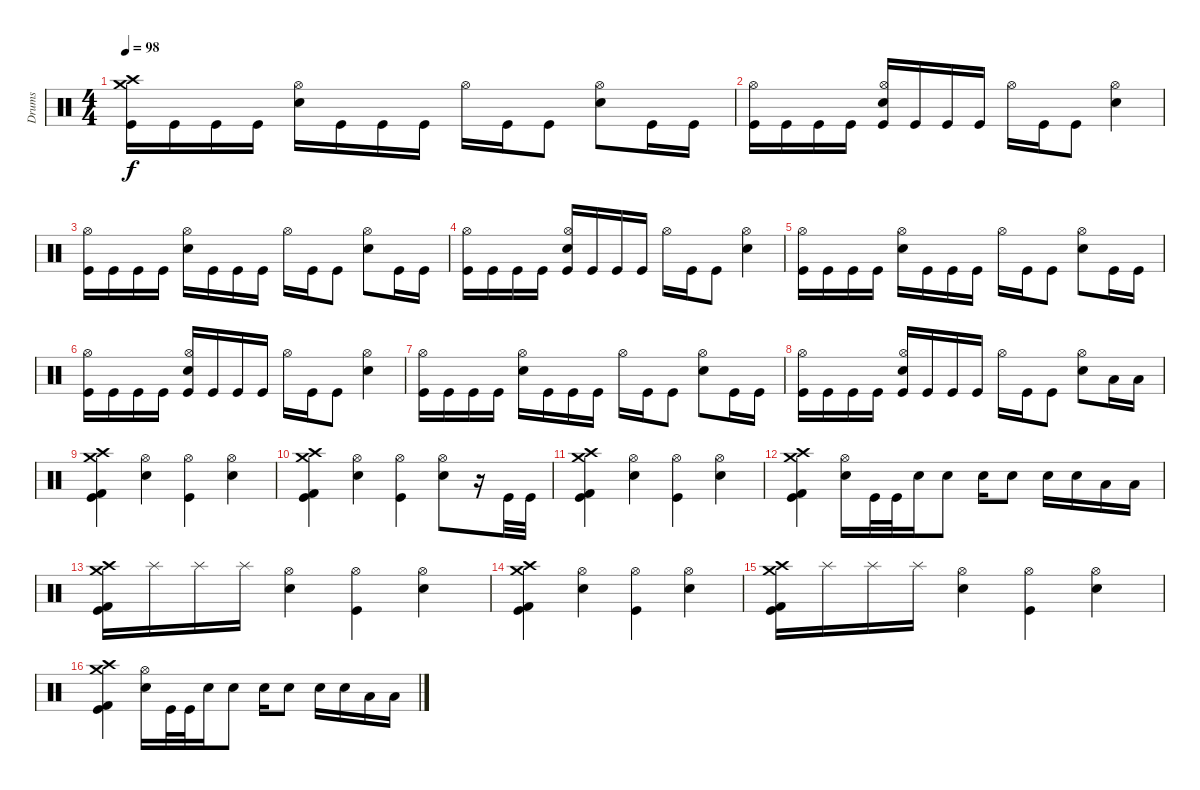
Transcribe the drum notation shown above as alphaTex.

\track ("Drums" "Drums") {instrument percussion}
\staff {score}
\articulation defaults
\ts (4 4)
\tempo 98
\clef neutral
\ks c
("Crash medium (hit)" "Crash high (hit)" "Kick (hit)").16{dy f} "Kick (hit)".16 "Kick (hit)".16 "Kick (hit)".16 ("Hi-Hat (open)" "Electric Snare (hit)").16 "Kick (hit)".16 "Kick (hit)".16 "Kick (hit)".16 "Hi-Hat (open)".16 "Kick (hit)".16 "Kick (hit)".8 ("Electric Snare (hit)" "Hi-Hat (open)").8 "Kick (hit)".16 "Kick (hit)".16 |
("Hi-Hat (open)" "Kick (hit)").16 "Kick (hit)".16 "Kick (hit)".16 "Kick (hit)".16 ("Electric Snare (hit)" "Hi-Hat (open)" "Kick (hit)").16 "Kick (hit)".16 "Kick (hit)".16 "Kick (hit)".16 "Hi-Hat (open)".16 "Kick (hit)".16 "Kick (hit)".8 ("Electric Snare (hit)" "Hi-Hat (open)").4 |
("Hi-Hat (open)" "Kick (hit)").16 "Kick (hit)".16 "Kick (hit)".16 "Kick (hit)".16 ("Hi-Hat (open)" "Electric Snare (hit)").16 "Kick (hit)".16 "Kick (hit)".16 "Kick (hit)".16 "Hi-Hat (open)".16 "Kick (hit)".16 "Kick (hit)".8 ("Electric Snare (hit)" "Hi-Hat (open)").8 "Kick (hit)".16 "Kick (hit)".16 |
("Hi-Hat (open)" "Kick (hit)").16 "Kick (hit)".16 "Kick (hit)".16 "Kick (hit)".16 ("Electric Snare (hit)" "Hi-Hat (open)" "Kick (hit)").16 "Kick (hit)".16 "Kick (hit)".16 "Kick (hit)".16 "Hi-Hat (open)".16 "Kick (hit)".16 "Kick (hit)".8 ("Electric Snare (hit)" "Hi-Hat (open)").4 |
("Hi-Hat (open)" "Kick (hit)").16 "Kick (hit)".16 "Kick (hit)".16 "Kick (hit)".16 ("Hi-Hat (open)" "Electric Snare (hit)").16 "Kick (hit)".16 "Kick (hit)".16 "Kick (hit)".16 "Hi-Hat (open)".16 "Kick (hit)".16 "Kick (hit)".8 ("Electric Snare (hit)" "Hi-Hat (open)").8 "Kick (hit)".16 "Kick (hit)".16 |
("Hi-Hat (open)" "Kick (hit)").16 "Kick (hit)".16 "Kick (hit)".16 "Kick (hit)".16 ("Electric Snare (hit)" "Hi-Hat (open)" "Kick (hit)").16 "Kick (hit)".16 "Kick (hit)".16 "Kick (hit)".16 "Hi-Hat (open)".16 "Kick (hit)".16 "Kick (hit)".8 ("Electric Snare (hit)" "Hi-Hat (open)").4 |
("Hi-Hat (open)" "Kick (hit)").16 "Kick (hit)".16 "Kick (hit)".16 "Kick (hit)".16 ("Hi-Hat (open)" "Electric Snare (hit)").16 "Kick (hit)".16 "Kick (hit)".16 "Kick (hit)".16 "Hi-Hat (open)".16 "Kick (hit)".16 "Kick (hit)".8 ("Electric Snare (hit)" "Hi-Hat (open)").8 "Kick (hit)".16 "Kick (hit)".16 |
("Hi-Hat (open)" "Kick (hit)").16 "Kick (hit)".16 "Kick (hit)".16 "Kick (hit)".16 ("Electric Snare (hit)" "Hi-Hat (open)" "Kick (hit)").16 "Kick (hit)".16 "Kick (hit)".16 "Kick (hit)".16 "Hi-Hat (open)".16 "Kick (hit)".16 "Kick (hit)".8 ("Electric Snare (hit)" "Hi-Hat (open)").8 "Low Tom (hit)".16 "Low Tom (hit)".16 |
("Crash medium (hit)" "Crash high (hit)" "Kick (hit)" "Kick (hit) 2").4 ("Hi-Hat (open)" "Electric Snare (hit)").4 ("Kick (hit)" "Hi-Hat (open)").4 ("Electric Snare (hit)" "Hi-Hat (open)").4 |
("Crash medium (hit)" "Crash high (hit)" "Kick (hit)" "Kick (hit) 2").4 ("Hi-Hat (open)" "Electric Snare (hit)").4 ("Kick (hit)" "Hi-Hat (open)").4 ("Electric Snare (hit)" "Hi-Hat (open)").8 r.16 "Kick (hit)".32 "Kick (hit)".32 |
("Crash medium (hit)" "Crash high (hit)" "Kick (hit)" "Kick (hit) 2").4 ("Hi-Hat (open)" "Electric Snare (hit)").4 ("Kick (hit)" "Hi-Hat (open)").4 ("Electric Snare (hit)" "Hi-Hat (open)").4 |
("Crash medium (hit)" "Crash high (hit)" "Kick (hit)" "Kick (hit) 2").4 ("Hi-Hat (open)" "Electric Snare (hit)").16 "Kick (hit)".32 "Kick (hit)".32 "Electric Snare (hit)".16 "Electric Snare (hit)".8 "Electric Snare (hit)".16 "Electric Snare (hit)".8 "Electric Snare (hit)".16 "Electric Snare (hit)".16 "Low Tom (hit)".16 "Low Tom (hit)".16 |
("Crash medium (hit)" "Crash high (hit)" "Kick (hit)" "Kick (hit) 2").16 "Splash (hit)".16 "Splash (hit)".16 "Splash (hit)".16 ("Hi-Hat (open)" "Electric Snare (hit)").4 ("Kick (hit)" "Hi-Hat (open)").4 ("Hi-Hat (open)" "Electric Snare (hit)").4 |
("Crash medium (hit)" "Crash high (hit)" "Kick (hit)" "Kick (hit) 2").4 ("Hi-Hat (open)" "Electric Snare (hit)").4 ("Kick (hit)" "Hi-Hat (open)").4 ("Electric Snare (hit)" "Hi-Hat (open)").4 |
("Crash medium (hit)" "Crash high (hit)" "Kick (hit)" "Kick (hit) 2").16 "Splash (hit)".16 "Splash (hit)".16 "Splash (hit)".16 ("Hi-Hat (open)" "Electric Snare (hit)").4 ("Kick (hit)" "Hi-Hat (open)").4 ("Hi-Hat (open)" "Electric Snare (hit)").4 |
("Crash medium (hit)" "Crash high (hit)" "Kick (hit)" "Kick (hit) 2").4 ("Hi-Hat (open)" "Electric Snare (hit)").16 "Kick (hit)".32 "Kick (hit)".32 "Electric Snare (hit)".16 "Electric Snare (hit)".8 "Electric Snare (hit)".16 "Electric Snare (hit)".8 "Electric Snare (hit)".16 "Electric Snare (hit)".16 "Low Tom (hit)".16 "Low Tom (hit)".16
